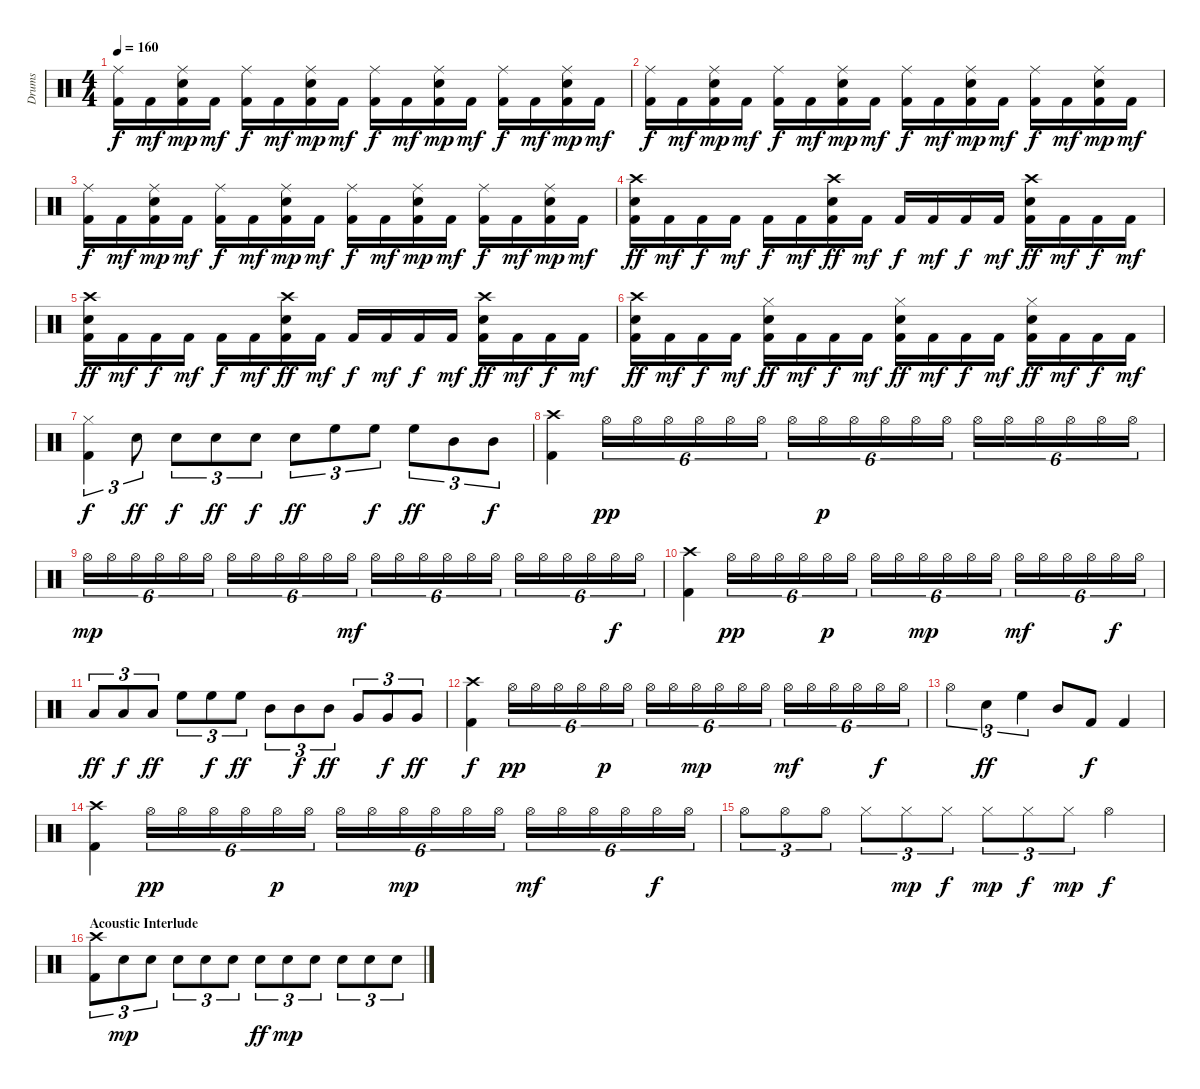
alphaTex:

\track ("Drums" "Drums") {instrument percussion}
\staff {score}
\articulation defaults
\ts (4 4)
\tempo 160
\clef neutral
\ks c
("Ride (middle)" "Kick (hit) 2").16{dy f} "Kick (hit) 2".16{dy mf} ("Snare (hit) 2" "Ride (middle)" "Kick (hit) 2").16{dy mp} "Kick (hit) 2".16{dy mf} ("Ride (middle)" "Kick (hit) 2").16{dy f} "Kick (hit) 2".16{dy mf} ("Snare (hit) 2" "Ride (middle)" "Kick (hit) 2").16{dy mp} "Kick (hit) 2".16{dy mf} ("Ride (middle)" "Kick (hit) 2").16{dy f} "Kick (hit) 2".16{dy mf} ("Snare (hit) 2" "Ride (middle)" "Kick (hit) 2").16{dy mp} "Kick (hit) 2".16{dy mf} ("Ride (middle)" "Kick (hit) 2").16{dy f} "Kick (hit) 2".16{dy mf} ("Snare (hit) 2" "Ride (middle)" "Kick (hit) 2").16{dy mp} "Kick (hit) 2".16{dy mf} |
("Ride (middle)" "Kick (hit) 2").16{dy f} "Kick (hit) 2".16{dy mf} ("Snare (hit) 2" "Ride (middle)" "Kick (hit) 2").16{dy mp} "Kick (hit) 2".16{dy mf} ("Ride (middle)" "Kick (hit) 2").16{dy f} "Kick (hit) 2".16{dy mf} ("Snare (hit) 2" "Ride (middle)" "Kick (hit) 2").16{dy mp} "Kick (hit) 2".16{dy mf} ("Ride (middle)" "Kick (hit) 2").16{dy f} "Kick (hit) 2".16{dy mf} ("Snare (hit) 2" "Ride (middle)" "Kick (hit) 2").16{dy mp} "Kick (hit) 2".16{dy mf} ("Ride (middle)" "Kick (hit) 2").16{dy f} "Kick (hit) 2".16{dy mf} ("Snare (hit) 2" "Ride (middle)" "Kick (hit) 2").16{dy mp} "Kick (hit) 2".16{dy mf} |
("Ride (middle)" "Kick (hit) 2").16{dy f} "Kick (hit) 2".16{dy mf} ("Snare (hit) 2" "Ride (middle)" "Kick (hit) 2").16{dy mp} "Kick (hit) 2".16{dy mf} ("Ride (middle)" "Kick (hit) 2").16{dy f} "Kick (hit) 2".16{dy mf} ("Snare (hit) 2" "Ride (middle)" "Kick (hit) 2").16{dy mp} "Kick (hit) 2".16{dy mf} ("Ride (middle)" "Kick (hit) 2").16{dy f} "Kick (hit) 2".16{dy mf} ("Snare (hit) 2" "Ride (middle)" "Kick (hit) 2").16{dy mp} "Kick (hit) 2".16{dy mf} ("Ride (middle)" "Kick (hit) 2").16{dy f} "Kick (hit) 2".16{dy mf} ("Snare (hit) 2" "Ride (middle)" "Kick (hit) 2").16{dy mp} "Kick (hit) 2".16{dy mf} |
("Crash high (hit)" "Snare (hit) 2" "Kick (hit) 2").16{dy ff} "Kick (hit) 2".16{dy mf} "Kick (hit) 2".16{dy f} "Kick (hit) 2".16{dy mf} "Kick (hit) 2".16{dy f} "Kick (hit) 2".16{dy mf} ("Snare (hit) 2" "Crash high (hit)" "Kick (hit) 2").16{dy ff} "Kick (hit) 2".16{dy mf} "Kick (hit) 2".16{dy f} "Kick (hit) 2".16{dy mf} "Kick (hit) 2".16{dy f} "Kick (hit) 2".16{dy mf} ("Snare (hit) 2" "Crash high (hit)" "Kick (hit) 2").16{dy ff} "Kick (hit) 2".16{dy mf} "Kick (hit) 2".16{dy f} "Kick (hit) 2".16{dy mf} |
("Crash high (hit)" "Snare (hit) 2" "Kick (hit) 2").16{dy ff} "Kick (hit) 2".16{dy mf} "Kick (hit) 2".16{dy f} "Kick (hit) 2".16{dy mf} "Kick (hit) 2".16{dy f} "Kick (hit) 2".16{dy mf} ("Snare (hit) 2" "Crash high (hit)" "Kick (hit) 2").16{dy ff} "Kick (hit) 2".16{dy mf} "Kick (hit) 2".16{dy f} "Kick (hit) 2".16{dy mf} "Kick (hit) 2".16{dy f} "Kick (hit) 2".16{dy mf} ("Snare (hit) 2" "Crash high (hit)" "Kick (hit) 2").16{dy ff} "Kick (hit) 2".16{dy mf} "Kick (hit) 2".16{dy f} "Kick (hit) 2".16{dy mf} |
("Crash high (hit)" "Snare (hit) 2" "Kick (hit) 2").16{dy ff} "Kick (hit) 2".16{dy mf} "Kick (hit) 2".16{dy f} "Kick (hit) 2".16{dy mf} ("Hi-Hat (closed)" "Snare (hit) 2" "Kick (hit) 2").16{dy ff} "Kick (hit) 2".16{dy mf} "Kick (hit) 2".16{dy f} "Kick (hit) 2".16{dy mf} ("Hi-Hat (closed)" "Snare (hit) 2" "Kick (hit) 2").16{dy ff} "Kick (hit) 2".16{dy mf} "Kick (hit) 2".16{dy f} "Kick (hit) 2".16{dy mf} ("Hi-Hat (closed)" "Snare (hit) 2" "Kick (hit) 2").16{dy ff} "Kick (hit) 2".16{dy mf} "Kick (hit) 2".16{dy f} "Kick (hit) 2".16{dy mf} |
("Hi-Hat (closed)" "Kick (hit) 2").4{tu (3 2) dy f} "Snare (hit) 2".8{tu (3 2) dy ff} "Snare (hit) 2".8{tu (3 2) dy f} "Snare (hit) 2".8{tu (3 2) dy ff} "Snare (hit) 2".8{tu (3 2) dy f} "Snare (hit) 2".8{tu (3 2) dy ff} "High Floor Tom (hit)".8{tu (3 2)} "High Floor Tom (hit)".8{tu (3 2) dy f} "High Floor Tom (hit)".8{tu (3 2) dy ff} "Mid Tom (hit)".8{tu (3 2)} "Mid Tom (hit)".8{tu (3 2) dy f} |
("Crash high (hit)" "Kick (hit) 2").4 "Hi-Hat (open)".16{tu (6 4) dy pp} "Hi-Hat (open)".16{tu (6 4)} "Hi-Hat (open)".16{tu (6 4)} "Hi-Hat (open)".16{tu (6 4)} "Hi-Hat (open)".16{tu (6 4)} "Hi-Hat (open)".16{tu (6 4)} "Hi-Hat (open)".16{tu (6 4)} "Hi-Hat (open)".16{tu (6 4) dy p} "Hi-Hat (open)".16{tu (6 4)} "Hi-Hat (open)".16{tu (6 4)} "Hi-Hat (open)".16{tu (6 4)} "Hi-Hat (open)".16{tu (6 4)} "Hi-Hat (open)".16{tu (6 4)} "Hi-Hat (open)".16{tu (6 4)} "Hi-Hat (open)".16{tu (6 4)} "Hi-Hat (open)".16{tu (6 4)} "Hi-Hat (open)".16{tu (6 4)} "Hi-Hat (open)".16{tu (6 4)} |
"Hi-Hat (open)".16{tu (6 4) dy mp} "Hi-Hat (open)".16{tu (6 4)} "Hi-Hat (open)".16{tu (6 4)} "Hi-Hat (open)".16{tu (6 4)} "Hi-Hat (open)".16{tu (6 4)} "Hi-Hat (open)".16{tu (6 4)} "Hi-Hat (open)".16{tu (6 4)} "Hi-Hat (open)".16{tu (6 4)} "Hi-Hat (open)".16{tu (6 4)} "Hi-Hat (open)".16{tu (6 4)} "Hi-Hat (open)".16{tu (6 4)} "Hi-Hat (open)".16{tu (6 4) dy mf} "Hi-Hat (open)".16{tu (6 4)} "Hi-Hat (open)".16{tu (6 4)} "Hi-Hat (open)".16{tu (6 4)} "Hi-Hat (open)".16{tu (6 4)} "Hi-Hat (open)".16{tu (6 4)} "Hi-Hat (open)".16{tu (6 4)} "Hi-Hat (open)".16{tu (6 4)} "Hi-Hat (open)".16{tu (6 4)} "Hi-Hat (open)".16{tu (6 4)} "Hi-Hat (open)".16{tu (6 4)} "Hi-Hat (open)".16{tu (6 4) dy f} "Hi-Hat (open)".16{tu (6 4)} |
("Crash high (hit)" "Kick (hit) 2").4 "Hi-Hat (open)".16{tu (6 4) dy pp} "Hi-Hat (open)".16{tu (6 4)} "Hi-Hat (open)".16{tu (6 4)} "Hi-Hat (open)".16{tu (6 4)} "Hi-Hat (open)".16{tu (6 4) dy p} "Hi-Hat (open)".16{tu (6 4)} "Hi-Hat (open)".16{tu (6 4)} "Hi-Hat (open)".16{tu (6 4)} "Hi-Hat (open)".16{tu (6 4) dy mp} "Hi-Hat (open)".16{tu (6 4)} "Hi-Hat (open)".16{tu (6 4)} "Hi-Hat (open)".16{tu (6 4)} "Hi-Hat (open)".16{tu (6 4) dy mf} "Hi-Hat (open)".16{tu (6 4)} "Hi-Hat (open)".16{tu (6 4)} "Hi-Hat (open)".16{tu (6 4)} "Hi-Hat (open)".16{tu (6 4) dy f} "Hi-Hat (open)".16{tu (6 4)} |
"Low Tom (hit)".8{tu (3 2) dy ff} "Low Tom (hit)".8{tu (3 2) dy f} "Low Tom (hit)".8{tu (3 2) dy ff} "High Floor Tom (hit)".8{tu (3 2)} "High Floor Tom (hit)".8{tu (3 2) dy f} "High Floor Tom (hit)".8{tu (3 2) dy ff} "Mid Tom (hit)".8{tu (3 2)} "Mid Tom (hit)".8{tu (3 2) dy f} "Mid Tom (hit)".8{tu (3 2) dy ff} "Very Low Tom (hit)".8{tu (3 2)} "Very Low Tom (hit)".8{tu (3 2) dy f} "Very Low Tom (hit)".8{tu (3 2) dy ff} |
("Crash high (hit)" "Kick (hit) 2").4{dy f} "Hi-Hat (open)".16{tu (6 4) dy pp} "Hi-Hat (open)".16{tu (6 4)} "Hi-Hat (open)".16{tu (6 4)} "Hi-Hat (open)".16{tu (6 4)} "Hi-Hat (open)".16{tu (6 4) dy p} "Hi-Hat (open)".16{tu (6 4)} "Hi-Hat (open)".16{tu (6 4)} "Hi-Hat (open)".16{tu (6 4)} "Hi-Hat (open)".16{tu (6 4) dy mp} "Hi-Hat (open)".16{tu (6 4)} "Hi-Hat (open)".16{tu (6 4)} "Hi-Hat (open)".16{tu (6 4)} "Hi-Hat (open)".16{tu (6 4) dy mf} "Hi-Hat (open)".16{tu (6 4)} "Hi-Hat (open)".16{tu (6 4)} "Hi-Hat (open)".16{tu (6 4)} "Hi-Hat (open)".16{tu (6 4) dy f} "Hi-Hat (open)".16{tu (6 4)} |
"Hi-Hat (open)".4{tu (3 2)} "Snare (hit) 2".4{tu (3 2) dy ff} "High Floor Tom (hit)".4{tu (3 2)} "Mid Tom (hit)".8 "Kick (hit) 2".8{dy f} "Kick (hit) 2".4 |
("Crash high (hit)" "Kick (hit) 2").4 "Hi-Hat (open)".16{tu (6 4) dy pp} "Hi-Hat (open)".16{tu (6 4)} "Hi-Hat (open)".16{tu (6 4)} "Hi-Hat (open)".16{tu (6 4)} "Hi-Hat (open)".16{tu (6 4) dy p} "Hi-Hat (open)".16{tu (6 4)} "Hi-Hat (open)".16{tu (6 4)} "Hi-Hat (open)".16{tu (6 4)} "Hi-Hat (open)".16{tu (6 4) dy mp} "Hi-Hat (open)".16{tu (6 4)} "Hi-Hat (open)".16{tu (6 4)} "Hi-Hat (open)".16{tu (6 4)} "Hi-Hat (open)".16{tu (6 4) dy mf} "Hi-Hat (open)".16{tu (6 4)} "Hi-Hat (open)".16{tu (6 4)} "Hi-Hat (open)".16{tu (6 4)} "Hi-Hat (open)".16{tu (6 4) dy f} "Hi-Hat (open)".16{tu (6 4)} |
"Hi-Hat (open)".8{tu (3 2)} "Hi-Hat (open)".8{tu (3 2)} "Hi-Hat (open)".8{tu (3 2)} "Hi-Hat (closed)".8{tu (3 2)} "Hi-Hat (closed)".8{tu (3 2) dy mp} "Hi-Hat (closed)".8{tu (3 2) dy f} "Hi-Hat (closed)".8{tu (3 2) dy mp} "Hi-Hat (closed)".8{tu (3 2) dy f} "Hi-Hat (closed)".8{tu (3 2) dy mp} "Hi-Hat (open)".4{dy f} |
\section ("" "Acoustic Interlude")
("Crash high (hit)" "Kick (hit) 2").8{tu (3 2)} "Snare (hit) 2".8{tu (3 2) dy mp} "Snare (hit) 2".8{tu (3 2)} "Snare (hit) 2".8{tu (3 2)} "Snare (hit) 2".8{tu (3 2)} "Snare (hit) 2".8{tu (3 2)} "Snare (hit) 2".8{tu (3 2) dy ff} "Snare (hit) 2".8{tu (3 2) dy mp} "Snare (hit) 2".8{tu (3 2)} "Snare (hit) 2".8{tu (3 2)} "Snare (hit) 2".8{tu (3 2)} "Snare (hit) 2".8{tu (3 2)}
